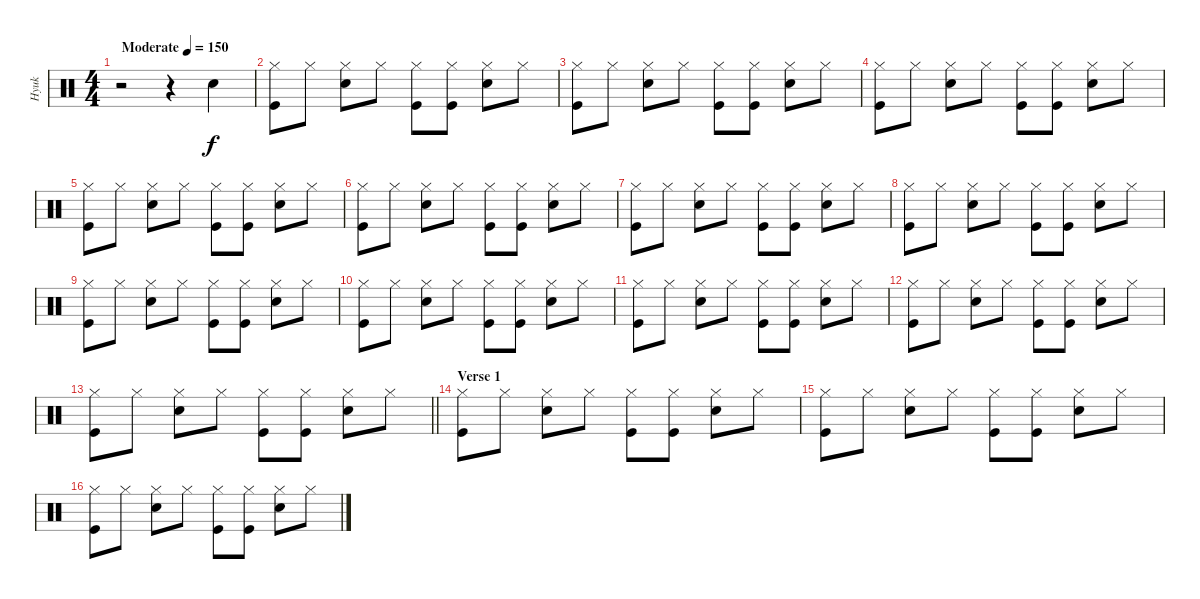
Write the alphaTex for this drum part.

\track ("Hyuk" "Hyuk") {instrument percussion}
\staff {score}
\articulation defaults
\ts (4 4)
\tempo (150 "Moderate")
\clef neutral
\ks c
r.2{dy f} r.4 "Snare (hit) 2".4 |
("Hi-Hat (closed)" "Kick (hit)").8 "Hi-Hat (closed)".8 ("Hi-Hat (closed)" "Snare (hit) 2").8 "Hi-Hat (closed)".8 ("Hi-Hat (closed)" "Kick (hit)").8 ("Hi-Hat (closed)" "Kick (hit)").8 ("Hi-Hat (closed)" "Snare (hit) 2").8 "Hi-Hat (closed)".8 |
("Hi-Hat (closed)" "Kick (hit)").8 "Hi-Hat (closed)".8 ("Hi-Hat (closed)" "Snare (hit) 2").8 "Hi-Hat (closed)".8 ("Hi-Hat (closed)" "Kick (hit)").8 ("Hi-Hat (closed)" "Kick (hit)").8 ("Hi-Hat (closed)" "Snare (hit) 2").8 "Hi-Hat (closed)".8 |
("Hi-Hat (closed)" "Kick (hit)").8 "Hi-Hat (closed)".8 ("Hi-Hat (closed)" "Snare (hit) 2").8 "Hi-Hat (closed)".8 ("Hi-Hat (closed)" "Kick (hit)").8 ("Hi-Hat (closed)" "Kick (hit)").8 ("Hi-Hat (closed)" "Snare (hit) 2").8 "Hi-Hat (closed)".8 |
("Hi-Hat (closed)" "Kick (hit)").8 "Hi-Hat (closed)".8 ("Hi-Hat (closed)" "Snare (hit) 2").8 "Hi-Hat (closed)".8 ("Hi-Hat (closed)" "Kick (hit)").8 ("Hi-Hat (closed)" "Kick (hit)").8 ("Hi-Hat (closed)" "Snare (hit) 2").8 "Hi-Hat (closed)".8 |
("Hi-Hat (closed)" "Kick (hit)").8 "Hi-Hat (closed)".8 ("Hi-Hat (closed)" "Snare (hit) 2").8 "Hi-Hat (closed)".8 ("Hi-Hat (closed)" "Kick (hit)").8 ("Hi-Hat (closed)" "Kick (hit)").8 ("Hi-Hat (closed)" "Snare (hit) 2").8 "Hi-Hat (closed)".8 |
("Hi-Hat (closed)" "Kick (hit)").8 "Hi-Hat (closed)".8 ("Hi-Hat (closed)" "Snare (hit) 2").8 "Hi-Hat (closed)".8 ("Hi-Hat (closed)" "Kick (hit)").8 ("Hi-Hat (closed)" "Kick (hit)").8 ("Hi-Hat (closed)" "Snare (hit) 2").8 "Hi-Hat (closed)".8 |
("Hi-Hat (closed)" "Kick (hit)").8 "Hi-Hat (closed)".8 ("Hi-Hat (closed)" "Snare (hit) 2").8 "Hi-Hat (closed)".8 ("Hi-Hat (closed)" "Kick (hit)").8 ("Hi-Hat (closed)" "Kick (hit)").8 ("Hi-Hat (closed)" "Snare (hit) 2").8 "Hi-Hat (closed)".8 |
("Hi-Hat (closed)" "Kick (hit)").8 "Hi-Hat (closed)".8 ("Hi-Hat (closed)" "Snare (hit) 2").8 "Hi-Hat (closed)".8 ("Hi-Hat (closed)" "Kick (hit)").8 ("Hi-Hat (closed)" "Kick (hit)").8 ("Hi-Hat (closed)" "Snare (hit) 2").8 "Hi-Hat (closed)".8 |
("Hi-Hat (closed)" "Kick (hit)").8 "Hi-Hat (closed)".8 ("Hi-Hat (closed)" "Snare (hit) 2").8 "Hi-Hat (closed)".8 ("Hi-Hat (closed)" "Kick (hit)").8 ("Hi-Hat (closed)" "Kick (hit)").8 ("Hi-Hat (closed)" "Snare (hit) 2").8 "Hi-Hat (closed)".8 |
("Hi-Hat (closed)" "Kick (hit)").8 "Hi-Hat (closed)".8 ("Hi-Hat (closed)" "Snare (hit) 2").8 "Hi-Hat (closed)".8 ("Hi-Hat (closed)" "Kick (hit)").8 ("Hi-Hat (closed)" "Kick (hit)").8 ("Hi-Hat (closed)" "Snare (hit) 2").8 "Hi-Hat (closed)".8 |
("Hi-Hat (closed)" "Kick (hit)").8 "Hi-Hat (closed)".8 ("Hi-Hat (closed)" "Snare (hit) 2").8 "Hi-Hat (closed)".8 ("Hi-Hat (closed)" "Kick (hit)").8 ("Hi-Hat (closed)" "Kick (hit)").8 ("Hi-Hat (closed)" "Snare (hit) 2").8 "Hi-Hat (closed)".8 |
\barLineRight lightlight
("Hi-Hat (closed)" "Kick (hit)").8 "Hi-Hat (closed)".8 ("Hi-Hat (closed)" "Snare (hit) 2").8 "Hi-Hat (closed)".8 ("Hi-Hat (closed)" "Kick (hit)").8 ("Hi-Hat (closed)" "Kick (hit)").8 ("Hi-Hat (closed)" "Snare (hit) 2").8 "Hi-Hat (closed)".8 |
\section ("" "Verse 1")
("Hi-Hat (closed)" "Kick (hit)").8 "Hi-Hat (closed)".8 ("Hi-Hat (closed)" "Snare (hit) 2").8 "Hi-Hat (closed)".8 ("Hi-Hat (closed)" "Kick (hit)").8 ("Hi-Hat (closed)" "Kick (hit)").8 ("Hi-Hat (closed)" "Snare (hit) 2").8 "Hi-Hat (closed)".8 |
("Hi-Hat (closed)" "Kick (hit)").8 "Hi-Hat (closed)".8 ("Hi-Hat (closed)" "Snare (hit) 2").8 "Hi-Hat (closed)".8 ("Hi-Hat (closed)" "Kick (hit)").8 ("Hi-Hat (closed)" "Kick (hit)").8 ("Hi-Hat (closed)" "Snare (hit) 2").8 "Hi-Hat (closed)".8 |
("Hi-Hat (closed)" "Kick (hit)").8 "Hi-Hat (closed)".8 ("Hi-Hat (closed)" "Snare (hit) 2").8 "Hi-Hat (closed)".8 ("Hi-Hat (closed)" "Kick (hit)").8 ("Hi-Hat (closed)" "Kick (hit)").8 ("Hi-Hat (closed)" "Snare (hit) 2").8 "Hi-Hat (closed)".8
